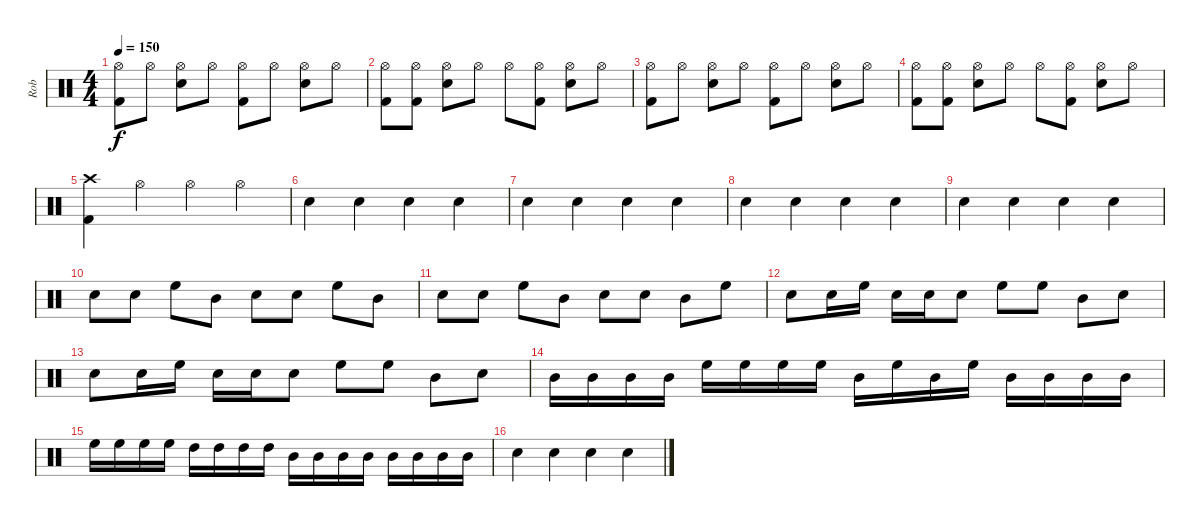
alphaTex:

\track ("Rob" "Rob") {instrument percussion}
\staff {score}
\articulation defaults
\ts (4 4)
\tempo 150
\clef neutral
\ks c
("Hi-Hat (open)" "Kick (hit) 2").8{dy f} "Hi-Hat (open)".8 ("Hi-Hat (open)" "Electric Snare (hit)").8 "Hi-Hat (open)".8 ("Hi-Hat (open)" "Kick (hit) 2").8 "Hi-Hat (open)".8 ("Hi-Hat (open)" "Electric Snare (hit)").8 "Hi-Hat (open)".8 |
("Hi-Hat (open)" "Kick (hit) 2").8 ("Hi-Hat (open)" "Kick (hit) 2").8 ("Hi-Hat (open)" "Electric Snare (hit)").8 "Hi-Hat (open)".8 "Hi-Hat (open)".8 ("Hi-Hat (open)" "Kick (hit) 2").8 ("Hi-Hat (open)" "Electric Snare (hit)").8 "Hi-Hat (open)".8 |
("Hi-Hat (open)" "Kick (hit) 2").8 "Hi-Hat (open)".8 ("Hi-Hat (open)" "Electric Snare (hit)").8 "Hi-Hat (open)".8 ("Hi-Hat (open)" "Kick (hit) 2").8 "Hi-Hat (open)".8 ("Hi-Hat (open)" "Electric Snare (hit)").8 "Hi-Hat (open)".8 |
("Hi-Hat (open)" "Kick (hit) 2").8 ("Hi-Hat (open)" "Kick (hit) 2").8 ("Hi-Hat (open)" "Electric Snare (hit)").8 "Hi-Hat (open)".8 "Hi-Hat (open)".8 ("Hi-Hat (open)" "Kick (hit) 2").8 ("Hi-Hat (open)" "Electric Snare (hit)").8 "Hi-Hat (open)".8 |
("Crash high (hit)" "Kick (hit) 2").4 "Hi-Hat (open)".4 "Hi-Hat (open)".4 "Hi-Hat (open)".4 |
"Electric Snare (hit)".4 "Electric Snare (hit)".4 "Electric Snare (hit)".4 "Electric Snare (hit)".4 |
"Electric Snare (hit)".4 "Electric Snare (hit)".4 "Electric Snare (hit)".4 "Electric Snare (hit)".4 |
"Electric Snare (hit)".4 "Electric Snare (hit)".4 "Electric Snare (hit)".4 "Electric Snare (hit)".4 |
"Electric Snare (hit)".4 "Electric Snare (hit)".4 "Electric Snare (hit)".4 "Electric Snare (hit)".4 |
"Electric Snare (hit)".8 "Electric Snare (hit)".8 "High Floor Tom (hit)".8 "Mid Tom (hit)".8 "Electric Snare (hit)".8 "Electric Snare (hit)".8 "High Floor Tom (hit)".8 "Mid Tom (hit)".8 |
"Electric Snare (hit)".8 "Electric Snare (hit)".8 "High Floor Tom (hit)".8 "Mid Tom (hit)".8 "Electric Snare (hit)".8 "Electric Snare (hit)".8 "Mid Tom (hit)".8 "High Floor Tom (hit)".8 |
"Electric Snare (hit)".8 "Electric Snare (hit)".16 "High Floor Tom (hit)".16 "Electric Snare (hit)".16 "Electric Snare (hit)".16 "Electric Snare (hit)".8 "High Floor Tom (hit)".8 "High Floor Tom (hit)".8 "Mid Tom (hit)".8 "Electric Snare (hit)".8 |
"Electric Snare (hit)".8 "Electric Snare (hit)".16 "High Floor Tom (hit)".16 "Electric Snare (hit)".16 "Electric Snare (hit)".16 "Electric Snare (hit)".8 "High Floor Tom (hit)".8 "High Floor Tom (hit)".8 "Mid Tom (hit)".8 "Electric Snare (hit)".8 |
"Mid Tom (hit)".16 "Mid Tom (hit)".16 "Mid Tom (hit)".16 "Mid Tom (hit)".16 "High Floor Tom (hit)".16 "High Floor Tom (hit)".16 "High Floor Tom (hit)".16 "High Floor Tom (hit)".16 "Mid Tom (hit)".16 "High Floor Tom (hit)".16 "Mid Tom (hit)".16 "High Floor Tom (hit)".16 "Mid Tom (hit)".16 "Mid Tom (hit)".16 "Mid Tom (hit)".16 "Mid Tom (hit)".16 |
"High Floor Tom (hit)".16 "High Floor Tom (hit)".16 "High Floor Tom (hit)".16 "High Floor Tom (hit)".16 "High Tom (hit)".16 "High Tom (hit)".16 "High Tom (hit)".16 "High Tom (hit)".16 "Mid Tom (hit)".16 "Mid Tom (hit)".16 "Mid Tom (hit)".16 "Mid Tom (hit)".16 "Mid Tom (hit)".16 "Mid Tom (hit)".16 "Mid Tom (hit)".16 "Mid Tom (hit)".16 |
"Electric Snare (hit)".4 "Electric Snare (hit)".4 "Electric Snare (hit)".4 "Electric Snare (hit)".4
